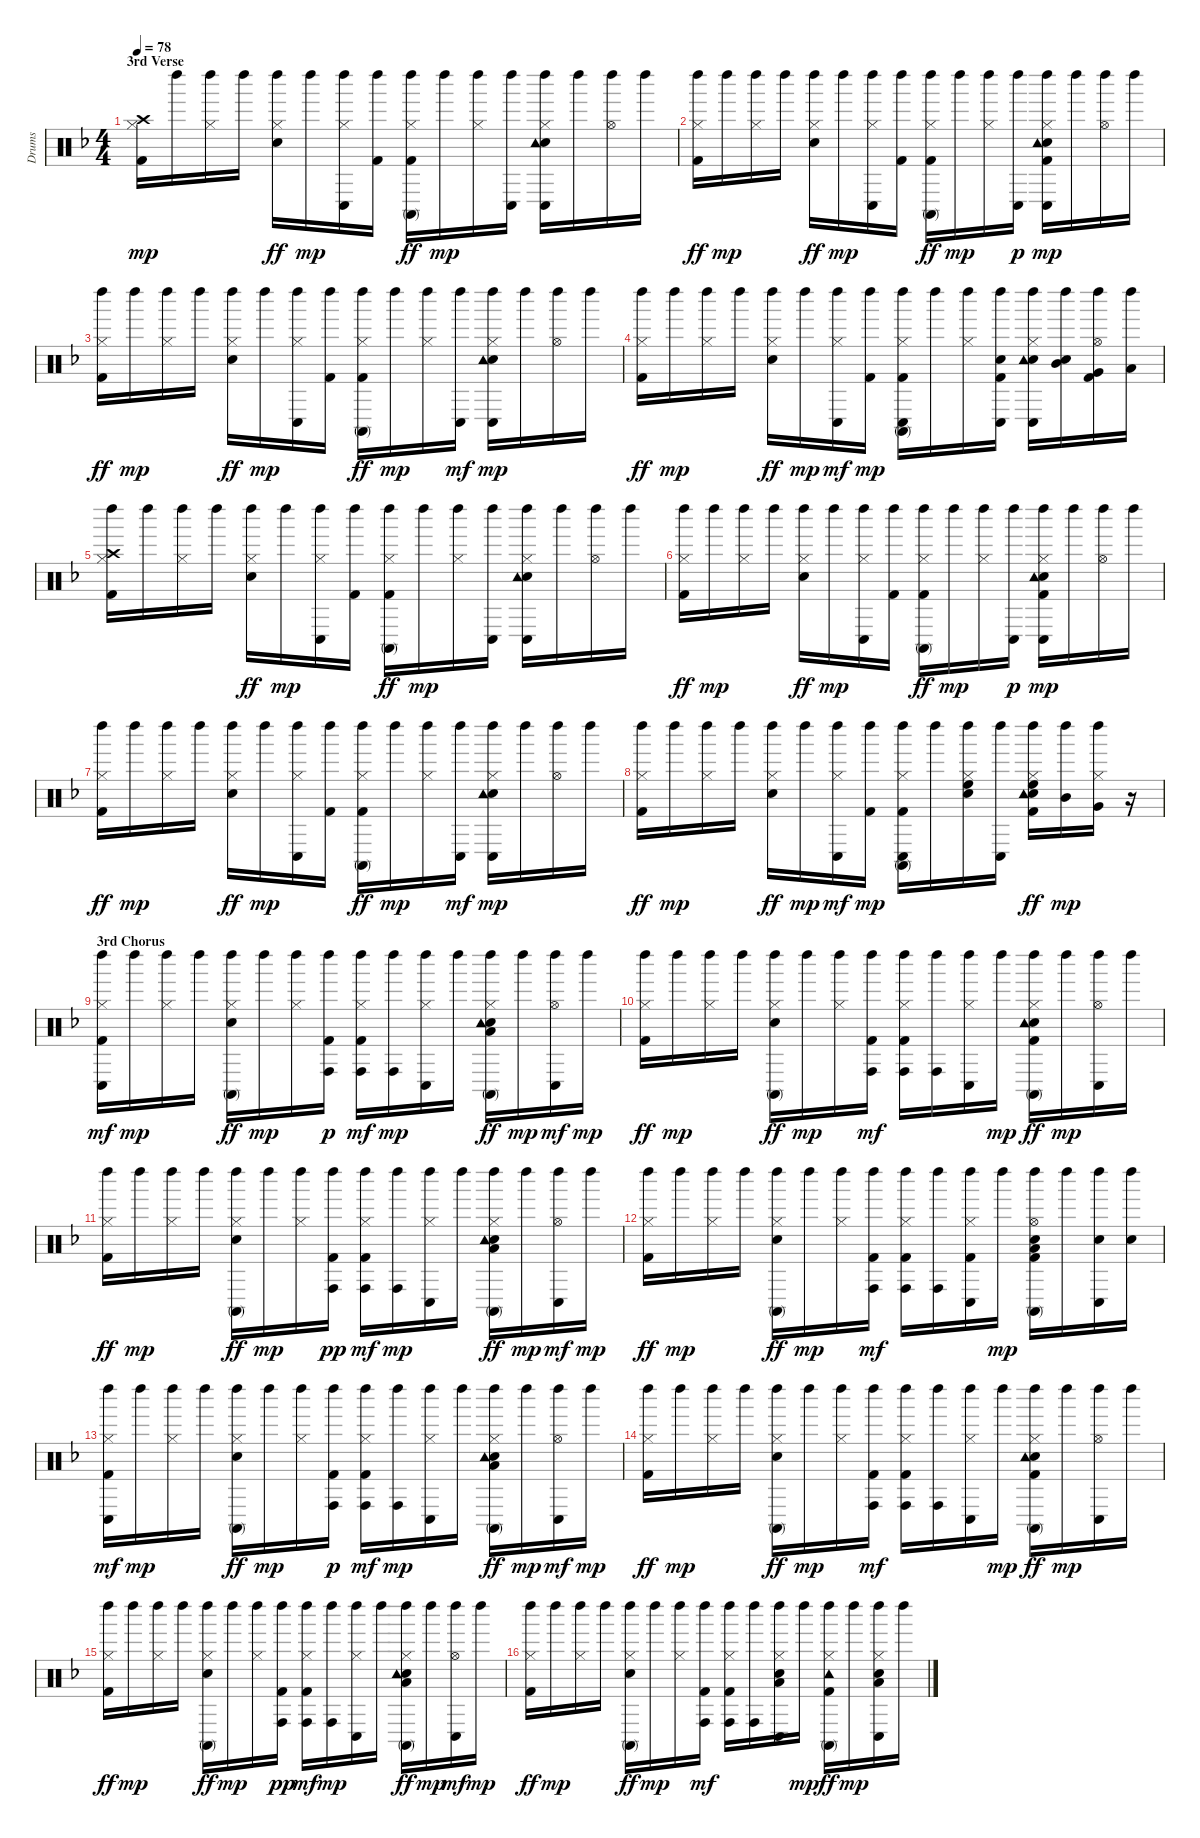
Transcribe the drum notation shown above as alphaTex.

\track ("Drums" "Drums") {instrument percussion}
\staff {score}
\articulation defaults
\ts (4 4)
\section ("" "3rd Verse")
\tempo 78
\clef neutral
\ks f
("Kick (hit) 2" "Hi-Hat (closed)" "Crash high (hit)").16{dy mp} "Left Maraca (hit)".16 ("Hi-Hat (closed)" "Left Maraca (hit)").16 "Left Maraca (hit)".16 ("Snare (hit) 2" "Hi-Hat (closed)" "Left Maraca (hit)").16{dy ff} "Left Maraca (hit)".16{dy mp} ("Hi-Hat (closed)" "Left Maraca (hit)" "Conga low (hit)").16 ("Kick (hit) 2" "Left Maraca (hit)").16 ("Kick (hit) 2" "Hi-Hat (closed)" "Left Maraca (hit)" "Conga high (mute)").16{dy ff} "Left Maraca (hit)".16{dy mp} ("Hi-Hat (closed)" "Left Maraca (hit)").16 ("Left Maraca (hit)" "Conga low (hit)").16 ("Snare (hit) 2" "Hi-Hat (closed)" "Left Maraca (hit)" "Tambourine (hit)" "Conga low (hit)").16 "Left Maraca (hit)".16 ("Hi-Hat (open)" "Left Maraca (hit)").16 "Left Maraca (hit)".16 |
("Kick (hit) 2" "Hi-Hat (closed)" "Left Maraca (hit)").16{dy ff} "Left Maraca (hit)".16{dy mp} ("Hi-Hat (closed)" "Left Maraca (hit)").16 "Left Maraca (hit)".16 ("Snare (hit) 2" "Hi-Hat (closed)" "Left Maraca (hit)").16{dy ff} "Left Maraca (hit)".16{dy mp} ("Hi-Hat (closed)" "Left Maraca (hit)" "Conga low (hit)").16 ("Kick (hit) 2" "Left Maraca (hit)").16 ("Kick (hit) 2" "Hi-Hat (closed)" "Left Maraca (hit)" "Conga high (mute)").16{dy ff} "Left Maraca (hit)".16{dy mp} ("Hi-Hat (closed)" "Left Maraca (hit)").16 ("Left Maraca (hit)" "Conga low (hit)").16{dy p} ("Kick (hit) 2" "Snare (hit) 2" "Hi-Hat (closed)" "Left Maraca (hit)" "Tambourine (hit)" "Conga low (hit)").16{dy mp} "Left Maraca (hit)".16 ("Hi-Hat (open)" "Left Maraca (hit)").16 "Left Maraca (hit)".16 |
("Kick (hit) 2" "Hi-Hat (closed)" "Left Maraca (hit)").16{dy ff} "Left Maraca (hit)".16{dy mp} ("Hi-Hat (closed)" "Left Maraca (hit)").16 "Left Maraca (hit)".16 ("Snare (hit) 2" "Hi-Hat (closed)" "Left Maraca (hit)").16{dy ff} "Left Maraca (hit)".16{dy mp} ("Hi-Hat (closed)" "Left Maraca (hit)" "Conga low (hit)").16 ("Kick (hit) 2" "Left Maraca (hit)").16 ("Kick (hit) 2" "Hi-Hat (closed)" "Left Maraca (hit)" "Conga high (mute)").16{dy ff} "Left Maraca (hit)".16{dy mp} ("Hi-Hat (closed)" "Left Maraca (hit)").16 ("Left Maraca (hit)" "Conga low (hit)").16{dy mf} ("Snare (hit) 2" "Hi-Hat (closed)" "Left Maraca (hit)" "Tambourine (hit)" "Conga low (hit)").16{dy mp} "Left Maraca (hit)".16 ("Hi-Hat (open)" "Left Maraca (hit)").16 "Left Maraca (hit)".16 |
("Kick (hit) 2" "Hi-Hat (closed)" "Left Maraca (hit)").16{dy ff} "Left Maraca (hit)".16{dy mp} ("Hi-Hat (closed)" "Left Maraca (hit)").16 "Left Maraca (hit)".16 ("Snare (hit) 2" "Hi-Hat (closed)" "Left Maraca (hit)").16{dy ff} "Left Maraca (hit)".16{dy mp} ("Hi-Hat (closed)" "Left Maraca (hit)" "Conga low (hit)").16{dy mf} ("Kick (hit) 2" "Left Maraca (hit)").16{dy mp} ("Kick (hit) 2" "Hi-Hat (closed)" "Left Maraca (hit)" "Conga high (mute)" "Conga low (hit)").16 "Left Maraca (hit)".16 ("Hi-Hat (closed)" "Left Maraca (hit)").16 ("Kick (hit) 2" "Snare (hit) 2" "Left Maraca (hit)" "Conga low (hit)").16 ("Snare (hit) 2" "Hi-Hat (closed)" "Left Maraca (hit)" "Tambourine (hit)" "Conga low (hit)").16 ("Snare (hit) 2" "Left Maraca (hit)" "Mid Tom (hit)").16 ("Kick (hit) 2" "Hi-Hat (open)" "Left Maraca (hit)" "Very Low Tom (hit)").16 ("Left Maraca (hit)" "Low Floor Tom (hit)").16 |
("Kick (hit) 2" "Hi-Hat (closed)" "Left Maraca (hit)" "Crash high (hit)").16 "Left Maraca (hit)".16 ("Hi-Hat (closed)" "Left Maraca (hit)").16 "Left Maraca (hit)".16 ("Snare (hit) 2" "Hi-Hat (closed)" "Left Maraca (hit)").16{dy ff} "Left Maraca (hit)".16{dy mp} ("Hi-Hat (closed)" "Left Maraca (hit)" "Conga low (hit)").16 ("Kick (hit) 2" "Left Maraca (hit)").16 ("Kick (hit) 2" "Hi-Hat (closed)" "Left Maraca (hit)" "Conga high (mute)").16{dy ff} "Left Maraca (hit)".16{dy mp} ("Hi-Hat (closed)" "Left Maraca (hit)").16 ("Left Maraca (hit)" "Conga low (hit)").16 ("Snare (hit) 2" "Hi-Hat (closed)" "Left Maraca (hit)" "Tambourine (hit)" "Conga low (hit)").16 "Left Maraca (hit)".16 ("Hi-Hat (open)" "Left Maraca (hit)").16 "Left Maraca (hit)".16 |
("Kick (hit) 2" "Hi-Hat (closed)" "Left Maraca (hit)").16{dy ff} "Left Maraca (hit)".16{dy mp} ("Hi-Hat (closed)" "Left Maraca (hit)").16 "Left Maraca (hit)".16 ("Snare (hit) 2" "Hi-Hat (closed)" "Left Maraca (hit)").16{dy ff} "Left Maraca (hit)".16{dy mp} ("Hi-Hat (closed)" "Left Maraca (hit)" "Conga low (hit)").16 ("Kick (hit) 2" "Left Maraca (hit)").16 ("Kick (hit) 2" "Hi-Hat (closed)" "Left Maraca (hit)" "Conga high (mute)").16{dy ff} "Left Maraca (hit)".16{dy mp} ("Hi-Hat (closed)" "Left Maraca (hit)").16 ("Left Maraca (hit)" "Conga low (hit)").16{dy p} ("Kick (hit) 2" "Snare (hit) 2" "Hi-Hat (closed)" "Left Maraca (hit)" "Tambourine (hit)" "Conga low (hit)").16{dy mp} "Left Maraca (hit)".16 ("Hi-Hat (open)" "Left Maraca (hit)").16 "Left Maraca (hit)".16 |
("Kick (hit) 2" "Hi-Hat (closed)" "Left Maraca (hit)").16{dy ff} "Left Maraca (hit)".16{dy mp} ("Hi-Hat (closed)" "Left Maraca (hit)").16 "Left Maraca (hit)".16 ("Snare (hit) 2" "Hi-Hat (closed)" "Left Maraca (hit)").16{dy ff} "Left Maraca (hit)".16{dy mp} ("Hi-Hat (closed)" "Left Maraca (hit)" "Conga low (hit)").16 ("Kick (hit) 2" "Left Maraca (hit)").16 ("Kick (hit) 2" "Hi-Hat (closed)" "Left Maraca (hit)" "Conga high (mute)").16{dy ff} "Left Maraca (hit)".16{dy mp} ("Hi-Hat (closed)" "Left Maraca (hit)").16 ("Left Maraca (hit)" "Conga low (hit)").16{dy mf} ("Snare (hit) 2" "Hi-Hat (closed)" "Left Maraca (hit)" "Tambourine (hit)" "Conga low (hit)").16{dy mp} "Left Maraca (hit)".16 ("Hi-Hat (open)" "Left Maraca (hit)").16 "Left Maraca (hit)".16 |
("Kick (hit) 2" "Hi-Hat (closed)" "Left Maraca (hit)").16{dy ff} "Left Maraca (hit)".16{dy mp} ("Hi-Hat (closed)" "Left Maraca (hit)").16 "Left Maraca (hit)".16 ("Snare (hit) 2" "Hi-Hat (closed)" "Left Maraca (hit)").16{dy ff} "Left Maraca (hit)".16{dy mp} ("Hi-Hat (closed)" "Left Maraca (hit)" "Conga low (hit)").16{dy mf} ("Kick (hit) 2" "Left Maraca (hit)").16{dy mp} ("Kick (hit) 2" "Hi-Hat (closed)" "Left Maraca (hit)" "Conga high (mute)" "Conga low (hit)").16 "Left Maraca (hit)".16 ("Snare (hit) 2" "Hi-Hat (closed)" "Left Maraca (hit)" "High Floor Tom (hit)").16 ("Left Maraca (hit)" "Conga low (hit)").16 ("Kick (hit) 2" "Snare (hit) 2" "Hi-Hat (closed)" "Left Maraca (hit)" "High Floor Tom (hit)" "Tambourine (hit)").16{dy ff} ("Left Maraca (hit)" "Mid Tom (hit)").16{dy mp} ("Hi-Hat (closed)" "Left Maraca (hit)" "Very Low Tom (hit)").16 r.16 |
\section ("" "3rd Chorus")
("Kick (hit) 2" "Hi-Hat (closed)" "Left Maraca (hit)" "Conga low (hit)").16{dy mf} "Left Maraca (hit)".16{dy mp} ("Hi-Hat (closed)" "Left Maraca (hit)").16 "Left Maraca (hit)".16 ("Snare (hit) 2" "Hi-Hat (closed)" "Left Maraca (hit)" "Conga high (mute)").16{dy ff} "Left Maraca (hit)".16{dy mp} ("Hi-Hat (closed)" "Left Maraca (hit)").16 ("Kick (hit) 2" "Left Maraca (hit)" "Conga high (hit)").16{dy p} ("Kick (hit) 2" "Hi-Hat (closed)" "Left Maraca (hit)" "Conga high (hit)").16{dy mf} ("Left Maraca (hit)" "Conga high (hit)").16{dy mp} ("Hi-Hat (closed)" "Left Maraca (hit)" "Conga low (hit)").16 "Left Maraca (hit)".16 ("Snare (hit) 2" "Hi-Hat (closed)" "Left Maraca (hit)" "Low Floor Tom (hit)" "Conga high (mute)" "Tambourine (hit)").16{dy ff} "Left Maraca (hit)".16{dy mp} ("Hi-Hat (open)" "Left Maraca (hit)" "Conga low (hit)").16{dy mf} "Left Maraca (hit)".16{dy mp} |
("Kick (hit) 2" "Hi-Hat (closed)" "Left Maraca (hit)").16{dy ff} "Left Maraca (hit)".16{dy mp} ("Hi-Hat (closed)" "Left Maraca (hit)").16 "Left Maraca (hit)".16 ("Snare (hit) 2" "Hi-Hat (closed)" "Left Maraca (hit)" "Conga high (mute)").16{dy ff} "Left Maraca (hit)".16{dy mp} ("Hi-Hat (closed)" "Left Maraca (hit)").16 ("Kick (hit) 2" "Left Maraca (hit)" "Conga high (hit)").16{dy mf} ("Kick (hit) 2" "Hi-Hat (closed)" "Left Maraca (hit)" "Conga high (hit)").16 ("Left Maraca (hit)" "Conga high (hit)").16 ("Hi-Hat (closed)" "Left Maraca (hit)" "Conga low (hit)").16 "Left Maraca (hit)".16{dy mp} ("Kick (hit) 2" "Snare (hit) 2" "Hi-Hat (closed)" "Left Maraca (hit)" "Conga high (mute)" "Tambourine (hit)").16{dy ff} "Left Maraca (hit)".16{dy mp} ("Hi-Hat (open)" "Left Maraca (hit)" "Conga low (hit)").16 "Left Maraca (hit)".16 |
("Kick (hit) 2" "Hi-Hat (closed)" "Left Maraca (hit)").16{dy ff} "Left Maraca (hit)".16{dy mp} ("Hi-Hat (closed)" "Left Maraca (hit)").16 "Left Maraca (hit)".16 ("Snare (hit) 2" "Hi-Hat (closed)" "Left Maraca (hit)" "Conga high (mute)").16{dy ff} "Left Maraca (hit)".16{dy mp} ("Hi-Hat (closed)" "Left Maraca (hit)").16 ("Kick (hit) 2" "Left Maraca (hit)" "Conga high (hit)").16{dy pp} ("Kick (hit) 2" "Hi-Hat (closed)" "Left Maraca (hit)" "Conga high (hit)").16{dy mf} ("Left Maraca (hit)" "Conga high (hit)").16{dy mp} ("Hi-Hat (closed)" "Left Maraca (hit)" "Conga low (hit)").16 "Left Maraca (hit)".16 ("Snare (hit) 2" "Hi-Hat (closed)" "Left Maraca (hit)" "Low Floor Tom (hit)" "Conga high (mute)" "Tambourine (hit)").16{dy ff} "Left Maraca (hit)".16{dy mp} ("Hi-Hat (open)" "Left Maraca (hit)" "Conga low (hit)").16{dy mf} "Left Maraca (hit)".16{dy mp} |
("Kick (hit) 2" "Hi-Hat (closed)" "Left Maraca (hit)").16{dy ff} "Left Maraca (hit)".16{dy mp} ("Hi-Hat (closed)" "Left Maraca (hit)").16 "Left Maraca (hit)".16 ("Snare (hit) 2" "Hi-Hat (closed)" "Left Maraca (hit)" "Conga high (mute)").16{dy ff} "Left Maraca (hit)".16{dy mp} ("Hi-Hat (closed)" "Left Maraca (hit)").16 ("Kick (hit) 2" "Left Maraca (hit)" "Conga high (hit)").16{dy mf} ("Kick (hit) 2" "Hi-Hat (closed)" "Left Maraca (hit)" "Conga high (hit)").16 ("Left Maraca (hit)" "Conga high (hit)").16 ("Kick (hit) 2" "Hi-Hat (closed)" "Left Maraca (hit)" "Conga low (hit)").16 "Left Maraca (hit)".16{dy mp} ("Kick (hit) 2" "Snare (hit) 2" "Hi-Hat (open)" "Left Maraca (hit)" "Conga high (mute)" "Low Floor Tom (hit)").16 "Left Maraca (hit)".16 ("Snare (hit) 2" "Left Maraca (hit)" "Conga low (hit)").16 ("Snare (hit) 2" "Left Maraca (hit)").16 |
("Kick (hit) 2" "Hi-Hat (closed)" "Left Maraca (hit)" "Conga low (hit)").16{dy mf} "Left Maraca (hit)".16{dy mp} ("Hi-Hat (closed)" "Left Maraca (hit)").16 "Left Maraca (hit)".16 ("Snare (hit) 2" "Hi-Hat (closed)" "Left Maraca (hit)" "Conga high (mute)").16{dy ff} "Left Maraca (hit)".16{dy mp} ("Hi-Hat (closed)" "Left Maraca (hit)").16 ("Kick (hit) 2" "Left Maraca (hit)" "Conga high (hit)").16{dy p} ("Kick (hit) 2" "Hi-Hat (closed)" "Left Maraca (hit)" "Conga high (hit)").16{dy mf} ("Left Maraca (hit)" "Conga high (hit)").16{dy mp} ("Hi-Hat (closed)" "Left Maraca (hit)" "Conga low (hit)").16 "Left Maraca (hit)".16 ("Snare (hit) 2" "Hi-Hat (closed)" "Left Maraca (hit)" "Low Floor Tom (hit)" "Conga high (mute)" "Tambourine (hit)").16{dy ff} "Left Maraca (hit)".16{dy mp} ("Hi-Hat (open)" "Left Maraca (hit)" "Conga low (hit)").16{dy mf} "Left Maraca (hit)".16{dy mp} |
("Kick (hit) 2" "Hi-Hat (closed)" "Left Maraca (hit)").16{dy ff} "Left Maraca (hit)".16{dy mp} ("Hi-Hat (closed)" "Left Maraca (hit)").16 "Left Maraca (hit)".16 ("Snare (hit) 2" "Hi-Hat (closed)" "Left Maraca (hit)" "Conga high (mute)").16{dy ff} "Left Maraca (hit)".16{dy mp} ("Hi-Hat (closed)" "Left Maraca (hit)").16 ("Kick (hit) 2" "Left Maraca (hit)" "Conga high (hit)").16{dy mf} ("Kick (hit) 2" "Hi-Hat (closed)" "Left Maraca (hit)" "Conga high (hit)").16 ("Left Maraca (hit)" "Conga high (hit)").16 ("Hi-Hat (closed)" "Left Maraca (hit)" "Conga low (hit)").16 "Left Maraca (hit)".16{dy mp} ("Kick (hit) 2" "Snare (hit) 2" "Hi-Hat (closed)" "Left Maraca (hit)" "Conga high (mute)" "Tambourine (hit)").16{dy ff} "Left Maraca (hit)".16{dy mp} ("Hi-Hat (open)" "Left Maraca (hit)" "Conga low (hit)").16 "Left Maraca (hit)".16 |
("Kick (hit) 2" "Hi-Hat (closed)" "Left Maraca (hit)").16{dy ff} "Left Maraca (hit)".16{dy mp} ("Hi-Hat (closed)" "Left Maraca (hit)").16 "Left Maraca (hit)".16 ("Snare (hit) 2" "Hi-Hat (closed)" "Left Maraca (hit)" "Conga high (mute)").16{dy ff} "Left Maraca (hit)".16{dy mp} ("Hi-Hat (closed)" "Left Maraca (hit)").16 ("Kick (hit) 2" "Left Maraca (hit)" "Conga high (hit)").16{dy pp} ("Kick (hit) 2" "Hi-Hat (closed)" "Left Maraca (hit)" "Conga high (hit)").16{dy mf} ("Left Maraca (hit)" "Conga high (hit)").16{dy mp} ("Hi-Hat (closed)" "Left Maraca (hit)" "Conga low (hit)").16 "Left Maraca (hit)".16 ("Snare (hit) 2" "Hi-Hat (closed)" "Left Maraca (hit)" "Low Floor Tom (hit)" "Conga high (mute)" "Tambourine (hit)").16{dy ff} "Left Maraca (hit)".16{dy mp} ("Hi-Hat (open)" "Left Maraca (hit)" "Conga low (hit)").16{dy mf} "Left Maraca (hit)".16{dy mp} |
("Kick (hit) 2" "Hi-Hat (closed)" "Left Maraca (hit)").16{dy ff} "Left Maraca (hit)".16{dy mp} ("Hi-Hat (closed)" "Left Maraca (hit)").16 "Left Maraca (hit)".16 ("Snare (hit) 2" "Hi-Hat (closed)" "Left Maraca (hit)" "Conga high (mute)").16{dy ff} "Left Maraca (hit)".16{dy mp} ("Hi-Hat (closed)" "Left Maraca (hit)").16 ("Kick (hit) 2" "Left Maraca (hit)" "Conga high (hit)").16{dy mf} ("Kick (hit) 2" "Hi-Hat (closed)" "Left Maraca (hit)" "Conga high (hit)").16 ("Left Maraca (hit)" "Conga high (hit)").16 ("Snare (hit) 2" "Hi-Hat (closed)" "Left Maraca (hit)" "Low Floor Tom (hit)" "Conga low (hit)").16 "Left Maraca (hit)".16{dy mp} ("Kick (hit) 2" "Hi-Hat (closed)" "Left Maraca (hit)" "Conga high (mute)" "Tambourine (hit)").16{dy ff} "Left Maraca (hit)".16{dy mp} ("Snare (hit) 2" "Hi-Hat (closed)" "Left Maraca (hit)" "Low Floor Tom (hit)" "Conga low (hit)").16 "Left Maraca (hit)".16
